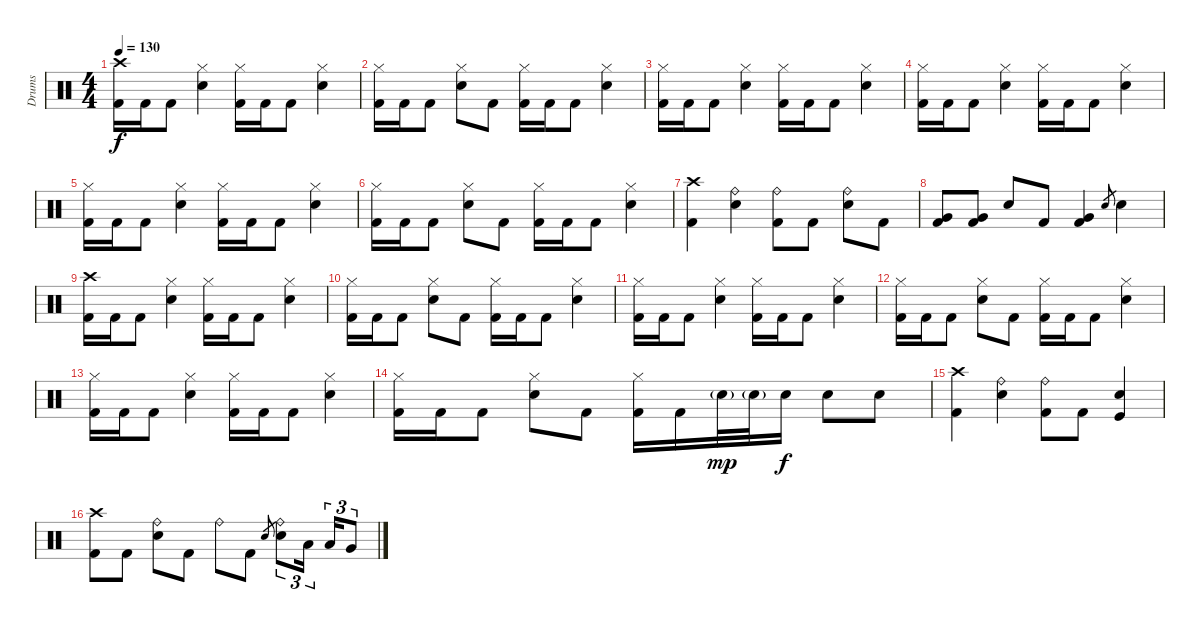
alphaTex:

\track ("Drums" "Drums") {instrument percussion}
\staff {score}
\articulation defaults
\ts (4 4)
\tempo 130
\clef neutral
\ks c
("Crash high (hit)" "Kick (hit) 2").16{dy f} "Kick (hit) 2".16 "Kick (hit) 2".8 ("Hi-Hat (closed)" "Electric Snare (hit)").4 ("Hi-Hat (closed)" "Kick (hit) 2").16 "Kick (hit) 2".16 "Kick (hit) 2".8 ("Hi-Hat (closed)" "Electric Snare (hit)").4 |
("Hi-Hat (closed)" "Kick (hit) 2").16 "Kick (hit) 2".16 "Kick (hit) 2".8 ("Hi-Hat (closed)" "Electric Snare (hit)").8 "Kick (hit) 2".8 ("Hi-Hat (closed)" "Kick (hit) 2").16 "Kick (hit) 2".16 "Kick (hit) 2".8 ("Hi-Hat (closed)" "Electric Snare (hit)").4 |
("Hi-Hat (closed)" "Kick (hit) 2").16 "Kick (hit) 2".16 "Kick (hit) 2".8 ("Hi-Hat (closed)" "Electric Snare (hit)").4 ("Hi-Hat (closed)" "Kick (hit) 2").16 "Kick (hit) 2".16 "Kick (hit) 2".8 ("Hi-Hat (closed)" "Electric Snare (hit)").4 |
("Hi-Hat (closed)" "Kick (hit) 2").16 "Kick (hit) 2".16 "Kick (hit) 2".8 ("Hi-Hat (closed)" "Electric Snare (hit)").4 ("Hi-Hat (closed)" "Kick (hit) 2").16 "Kick (hit) 2".16 "Kick (hit) 2".8 ("Hi-Hat (closed)" "Electric Snare (hit)").4 |
("Hi-Hat (closed)" "Kick (hit) 2").16 "Kick (hit) 2".16 "Kick (hit) 2".8 ("Hi-Hat (closed)" "Electric Snare (hit)").4 ("Hi-Hat (closed)" "Kick (hit) 2").16 "Kick (hit) 2".16 "Kick (hit) 2".8 ("Hi-Hat (closed)" "Electric Snare (hit)").4 |
("Hi-Hat (closed)" "Kick (hit) 2").16 "Kick (hit) 2".16 "Kick (hit) 2".8 ("Hi-Hat (closed)" "Electric Snare (hit)").8 "Kick (hit) 2".8 ("Hi-Hat (closed)" "Kick (hit) 2").16 "Kick (hit) 2".16 "Kick (hit) 2".8 ("Hi-Hat (closed)" "Electric Snare (hit)").4 |
("Crash high (hit)" "Kick (hit) 2").4 ("Ride (bell)" "Electric Snare (hit)").4 ("Ride (bell)" "Kick (hit) 2").8 "Kick (hit) 2".8 ("Ride (bell)" "Electric Snare (hit)").8 "Kick (hit) 2".8 |
("Very Low Tom (hit)" "Kick (hit) 2").8 ("Very Low Tom (hit)" "Kick (hit) 2").8 "Electric Snare (hit)".8 "Kick (hit) 2".8 ("Very Low Tom (hit)" "Kick (hit) 2").4 "Electric Snare (hit)".8{gr} "Electric Snare (hit)".4 |
("Crash high (hit)" "Kick (hit) 2").16 "Kick (hit) 2".16 "Kick (hit) 2".8 ("Hi-Hat (closed)" "Electric Snare (hit)").4 ("Hi-Hat (closed)" "Kick (hit) 2").16 "Kick (hit) 2".16 "Kick (hit) 2".8 ("Hi-Hat (closed)" "Electric Snare (hit)").4 |
("Hi-Hat (closed)" "Kick (hit) 2").16 "Kick (hit) 2".16 "Kick (hit) 2".8 ("Hi-Hat (closed)" "Electric Snare (hit)").8 "Kick (hit) 2".8 ("Hi-Hat (closed)" "Kick (hit) 2").16 "Kick (hit) 2".16 "Kick (hit) 2".8 ("Hi-Hat (closed)" "Electric Snare (hit)").4 |
("Hi-Hat (closed)" "Kick (hit) 2").16 "Kick (hit) 2".16 "Kick (hit) 2".8 ("Hi-Hat (closed)" "Electric Snare (hit)").4 ("Hi-Hat (closed)" "Kick (hit) 2").16 "Kick (hit) 2".16 "Kick (hit) 2".8 ("Hi-Hat (closed)" "Electric Snare (hit)").4 |
("Hi-Hat (closed)" "Kick (hit) 2").16 "Kick (hit) 2".16 "Kick (hit) 2".8 ("Hi-Hat (closed)" "Electric Snare (hit)").8 "Kick (hit) 2".8 ("Hi-Hat (closed)" "Kick (hit) 2").16 "Kick (hit) 2".16 "Kick (hit) 2".8 ("Hi-Hat (closed)" "Electric Snare (hit)").4 |
("Hi-Hat (closed)" "Kick (hit) 2").16 "Kick (hit) 2".16 "Kick (hit) 2".8 ("Hi-Hat (closed)" "Electric Snare (hit)").4 ("Hi-Hat (closed)" "Kick (hit) 2").16 "Kick (hit) 2".16 "Kick (hit) 2".8 ("Hi-Hat (closed)" "Electric Snare (hit)").4 |
("Hi-Hat (closed)" "Kick (hit) 2").16 "Kick (hit) 2".16 "Kick (hit) 2".8 ("Hi-Hat (closed)" "Electric Snare (hit)").8 "Kick (hit) 2".8 ("Hi-Hat (closed)" "Kick (hit) 2").16 "Kick (hit) 2".16 "Electric Snare (hit)"{g}.32{dy mp} "Electric Snare (hit)"{g}.32 "Electric Snare (hit)".16{dy f} "Electric Snare (hit)".8 "Electric Snare (hit)".8 |
("Crash high (hit)" "Kick (hit) 2").4 ("Ride (bell)" "Electric Snare (hit)").4 ("Ride (bell)" "Kick (hit) 2").8 "Kick (hit) 2".8 ("Kick (hit)" "Electric Snare (hit)").4 |
("Crash high (hit)" "Kick (hit) 2").8 "Kick (hit) 2".8 ("Ride (bell)" "Electric Snare (hit)").8 "Kick (hit) 2".8 "Ride (bell)".8 "Kick (hit) 2".8 "Electric Snare (hit)".8{gr} ("Ride (bell)" "Electric Snare (hit)").8{tu (3 2)} "Low Tom (hit)".16{tu (3 2) beam splitsecondary} "Low Tom (hit)".16{tu (3 2)} "Very Low Tom (hit)".8{tu (3 2)}
